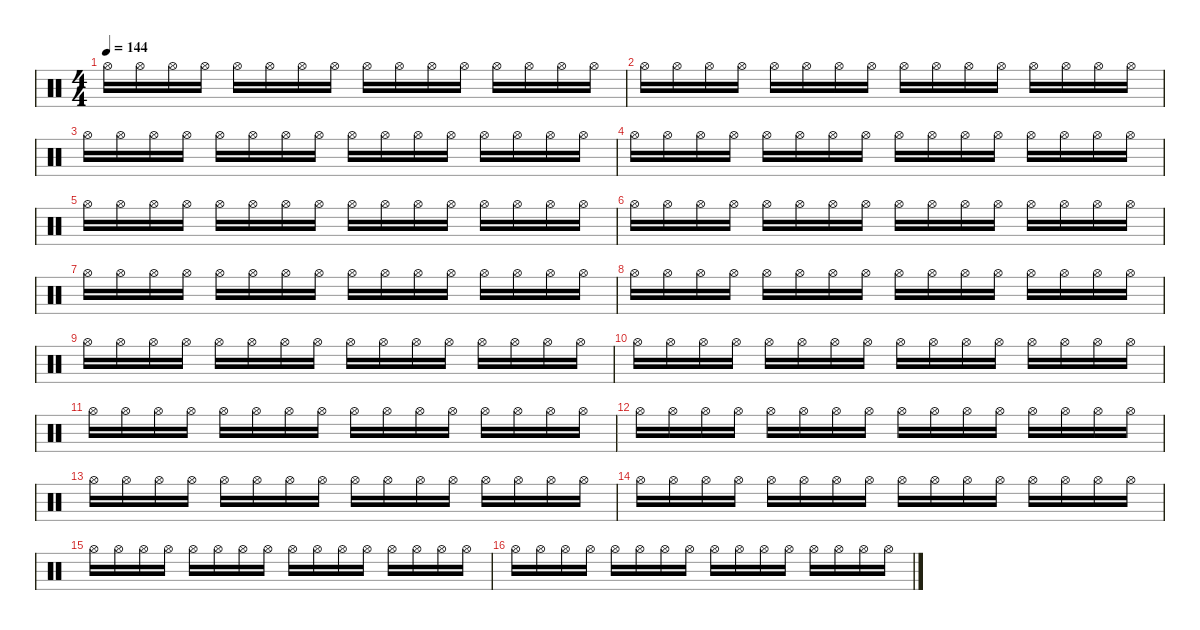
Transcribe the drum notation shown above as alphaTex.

\defaultSystemsLayout 4
\hideDynamics
\bracketExtendMode nobrackets
\singleTrackTrackNamePolicy hidden
\multiTrackTrackNamePolicy hidden
\firstSystemTrackNameMode fullname
\firstSystemTrackNameOrientation horizontal
\otherSystemsTrackNameOrientation horizontal
\track ("Bateria" "drm.") {instrument percussion}
\staff {score}
\articulation defaults
\ts (4 4)
\tempo 144
\clef neutral
\ks c "Hi-Hat (open)".16{dy f beam Down} "Hi-Hat (open)".16{beam Down} "Hi-Hat (open)".16{beam Down} "Hi-Hat (open)".16{beam Down} "Hi-Hat (open)".16{beam Down} "Hi-Hat (open)".16{beam Down} "Hi-Hat (open)".16{beam Down} "Hi-Hat (open)".16{beam Down} "Hi-Hat (open)".16{beam Down} "Hi-Hat (open)".16{beam Down} "Hi-Hat (open)".16{beam Down} "Hi-Hat (open)".16{beam Down} "Hi-Hat (open)".16{beam Down} "Hi-Hat (open)".16{beam Down} "Hi-Hat (open)".16{beam Down} "Hi-Hat (open)".16{beam Down}
|
"Hi-Hat (open)".16{beam Down} "Hi-Hat (open)".16{beam Down} "Hi-Hat (open)".16{beam Down} "Hi-Hat (open)".16{beam Down} "Hi-Hat (open)".16{beam Down} "Hi-Hat (open)".16{beam Down} "Hi-Hat (open)".16{beam Down} "Hi-Hat (open)".16{beam Down} "Hi-Hat (open)".16{beam Down} "Hi-Hat (open)".16{beam Down} "Hi-Hat (open)".16{beam Down} "Hi-Hat (open)".16{beam Down} "Hi-Hat (open)".16{beam Down} "Hi-Hat (open)".16{beam Down} "Hi-Hat (open)".16{beam Down} "Hi-Hat (open)".16{beam Down} |
"Hi-Hat (open)".16{beam Down} "Hi-Hat (open)".16{beam Down} "Hi-Hat (open)".16{beam Down} "Hi-Hat (open)".16{beam Down} "Hi-Hat (open)".16{beam Down} "Hi-Hat (open)".16{beam Down} "Hi-Hat (open)".16{beam Down} "Hi-Hat (open)".16{beam Down} "Hi-Hat (open)".16{beam Down} "Hi-Hat (open)".16{beam Down} "Hi-Hat (open)".16{beam Down} "Hi-Hat (open)".16{beam Down} "Hi-Hat (open)".16{beam Down} "Hi-Hat (open)".16{beam Down} "Hi-Hat (open)".16{beam Down} "Hi-Hat (open)".16{beam Down} |
"Hi-Hat (open)".16{beam Down} "Hi-Hat (open)".16{beam Down} "Hi-Hat (open)".16{beam Down} "Hi-Hat (open)".16{beam Down} "Hi-Hat (open)".16{beam Down} "Hi-Hat (open)".16{beam Down} "Hi-Hat (open)".16{beam Down} "Hi-Hat (open)".16{beam Down} "Hi-Hat (open)".16{beam Down} "Hi-Hat (open)".16{beam Down} "Hi-Hat (open)".16{beam Down} "Hi-Hat (open)".16{beam Down} "Hi-Hat (open)".16{beam Down} "Hi-Hat (open)".16{beam Down} "Hi-Hat (open)".16{beam Down} "Hi-Hat (open)".16{beam Down} |
"Hi-Hat (open)".16{beam Down} "Hi-Hat (open)".16{beam Down} "Hi-Hat (open)".16{beam Down} "Hi-Hat (open)".16{beam Down} "Hi-Hat (open)".16{beam Down} "Hi-Hat (open)".16{beam Down} "Hi-Hat (open)".16{beam Down} "Hi-Hat (open)".16{beam Down} "Hi-Hat (open)".16{beam Down} "Hi-Hat (open)".16{beam Down} "Hi-Hat (open)".16{beam Down} "Hi-Hat (open)".16{beam Down} "Hi-Hat (open)".16{beam Down} "Hi-Hat (open)".16{beam Down} "Hi-Hat (open)".16{beam Down} "Hi-Hat (open)".16{beam Down} |
"Hi-Hat (open)".16{beam Down} "Hi-Hat (open)".16{beam Down} "Hi-Hat (open)".16{beam Down} "Hi-Hat (open)".16{beam Down} "Hi-Hat (open)".16{beam Down} "Hi-Hat (open)".16{beam Down} "Hi-Hat (open)".16{beam Down} "Hi-Hat (open)".16{beam Down} "Hi-Hat (open)".16{beam Down} "Hi-Hat (open)".16{beam Down} "Hi-Hat (open)".16{beam Down} "Hi-Hat (open)".16{beam Down} "Hi-Hat (open)".16{beam Down} "Hi-Hat (open)".16{beam Down} "Hi-Hat (open)".16{beam Down} "Hi-Hat (open)".16{beam Down} |
"Hi-Hat (open)".16{beam Down} "Hi-Hat (open)".16{beam Down} "Hi-Hat (open)".16{beam Down} "Hi-Hat (open)".16{beam Down} "Hi-Hat (open)".16{beam Down} "Hi-Hat (open)".16{beam Down} "Hi-Hat (open)".16{beam Down} "Hi-Hat (open)".16{beam Down} "Hi-Hat (open)".16{beam Down} "Hi-Hat (open)".16{beam Down} "Hi-Hat (open)".16{beam Down} "Hi-Hat (open)".16{beam Down} "Hi-Hat (open)".16{beam Down} "Hi-Hat (open)".16{beam Down} "Hi-Hat (open)".16{beam Down} "Hi-Hat (open)".16{beam Down} |
"Hi-Hat (open)".16{beam Down} "Hi-Hat (open)".16{beam Down} "Hi-Hat (open)".16{beam Down} "Hi-Hat (open)".16{beam Down} "Hi-Hat (open)".16{beam Down} "Hi-Hat (open)".16{beam Down} "Hi-Hat (open)".16{beam Down} "Hi-Hat (open)".16{beam Down} "Hi-Hat (open)".16{beam Down} "Hi-Hat (open)".16{beam Down} "Hi-Hat (open)".16{beam Down} "Hi-Hat (open)".16{beam Down} "Hi-Hat (open)".16{beam Down} "Hi-Hat (open)".16{beam Down} "Hi-Hat (open)".16{beam Down} "Hi-Hat (open)".16{beam Down} |
"Hi-Hat (open)".16{beam Down} "Hi-Hat (open)".16{beam Down} "Hi-Hat (open)".16{beam Down} "Hi-Hat (open)".16{beam Down} "Hi-Hat (open)".16{beam Down} "Hi-Hat (open)".16{beam Down} "Hi-Hat (open)".16{beam Down} "Hi-Hat (open)".16{beam Down} "Hi-Hat (open)".16{beam Down} "Hi-Hat (open)".16{beam Down} "Hi-Hat (open)".16{beam Down} "Hi-Hat (open)".16{beam Down} "Hi-Hat (open)".16{beam Down} "Hi-Hat (open)".16{beam Down} "Hi-Hat (open)".16{beam Down} "Hi-Hat (open)".16{beam Down} |
"Hi-Hat (open)".16{beam Down} "Hi-Hat (open)".16{beam Down} "Hi-Hat (open)".16{beam Down} "Hi-Hat (open)".16{beam Down} "Hi-Hat (open)".16{beam Down} "Hi-Hat (open)".16{beam Down} "Hi-Hat (open)".16{beam Down} "Hi-Hat (open)".16{beam Down} "Hi-Hat (open)".16{beam Down} "Hi-Hat (open)".16{beam Down} "Hi-Hat (open)".16{beam Down} "Hi-Hat (open)".16{beam Down} "Hi-Hat (open)".16{beam Down} "Hi-Hat (open)".16{beam Down} "Hi-Hat (open)".16{beam Down} "Hi-Hat (open)".16{beam Down} |
"Hi-Hat (open)".16{beam Down} "Hi-Hat (open)".16{beam Down} "Hi-Hat (open)".16{beam Down} "Hi-Hat (open)".16{beam Down} "Hi-Hat (open)".16{beam Down} "Hi-Hat (open)".16{beam Down} "Hi-Hat (open)".16{beam Down} "Hi-Hat (open)".16{beam Down} "Hi-Hat (open)".16{beam Down} "Hi-Hat (open)".16{beam Down} "Hi-Hat (open)".16{beam Down} "Hi-Hat (open)".16{beam Down} "Hi-Hat (open)".16{beam Down} "Hi-Hat (open)".16{beam Down} "Hi-Hat (open)".16{beam Down} "Hi-Hat (open)".16{beam Down} |
"Hi-Hat (open)".16{beam Down} "Hi-Hat (open)".16{beam Down} "Hi-Hat (open)".16{beam Down} "Hi-Hat (open)".16{beam Down} "Hi-Hat (open)".16{beam Down} "Hi-Hat (open)".16{beam Down} "Hi-Hat (open)".16{beam Down} "Hi-Hat (open)".16{beam Down} "Hi-Hat (open)".16{beam Down} "Hi-Hat (open)".16{beam Down} "Hi-Hat (open)".16{beam Down} "Hi-Hat (open)".16{beam Down} "Hi-Hat (open)".16{beam Down} "Hi-Hat (open)".16{beam Down} "Hi-Hat (open)".16{beam Down} "Hi-Hat (open)".16{beam Down} |
"Hi-Hat (open)".16{beam Down} "Hi-Hat (open)".16{beam Down} "Hi-Hat (open)".16{beam Down} "Hi-Hat (open)".16{beam Down} "Hi-Hat (open)".16{beam Down} "Hi-Hat (open)".16{beam Down} "Hi-Hat (open)".16{beam Down} "Hi-Hat (open)".16{beam Down} "Hi-Hat (open)".16{beam Down} "Hi-Hat (open)".16{beam Down} "Hi-Hat (open)".16{beam Down} "Hi-Hat (open)".16{beam Down} "Hi-Hat (open)".16{beam Down} "Hi-Hat (open)".16{beam Down} "Hi-Hat (open)".16{beam Down} "Hi-Hat (open)".16{beam Down} |
"Hi-Hat (open)".16{beam Down} "Hi-Hat (open)".16{beam Down} "Hi-Hat (open)".16{beam Down} "Hi-Hat (open)".16{beam Down} "Hi-Hat (open)".16{beam Down} "Hi-Hat (open)".16{beam Down} "Hi-Hat (open)".16{beam Down} "Hi-Hat (open)".16{beam Down} "Hi-Hat (open)".16{beam Down} "Hi-Hat (open)".16{beam Down} "Hi-Hat (open)".16{beam Down} "Hi-Hat (open)".16{beam Down} "Hi-Hat (open)".16{beam Down} "Hi-Hat (open)".16{beam Down} "Hi-Hat (open)".16{beam Down} "Hi-Hat (open)".16{beam Down} |
"Hi-Hat (open)".16{beam Down} "Hi-Hat (open)".16{beam Down} "Hi-Hat (open)".16{beam Down} "Hi-Hat (open)".16{beam Down} "Hi-Hat (open)".16{beam Down} "Hi-Hat (open)".16{beam Down} "Hi-Hat (open)".16{beam Down} "Hi-Hat (open)".16{beam Down} "Hi-Hat (open)".16{beam Down} "Hi-Hat (open)".16{beam Down} "Hi-Hat (open)".16{beam Down} "Hi-Hat (open)".16{beam Down} "Hi-Hat (open)".16{beam Down} "Hi-Hat (open)".16{beam Down} "Hi-Hat (open)".16{beam Down} "Hi-Hat (open)".16{beam Down} |
"Hi-Hat (open)".16{beam Down} "Hi-Hat (open)".16{beam Down} "Hi-Hat (open)".16{beam Down} "Hi-Hat (open)".16{beam Down} "Hi-Hat (open)".16{beam Down} "Hi-Hat (open)".16{beam Down} "Hi-Hat (open)".16{beam Down} "Hi-Hat (open)".16{beam Down} "Hi-Hat (open)".16{beam Down} "Hi-Hat (open)".16{beam Down} "Hi-Hat (open)".16{beam Down} "Hi-Hat (open)".16{beam Down} "Hi-Hat (open)".16{beam Down} "Hi-Hat (open)".16{beam Down} "Hi-Hat (open)".16{beam Down} "Hi-Hat (open)".16{beam Down}
